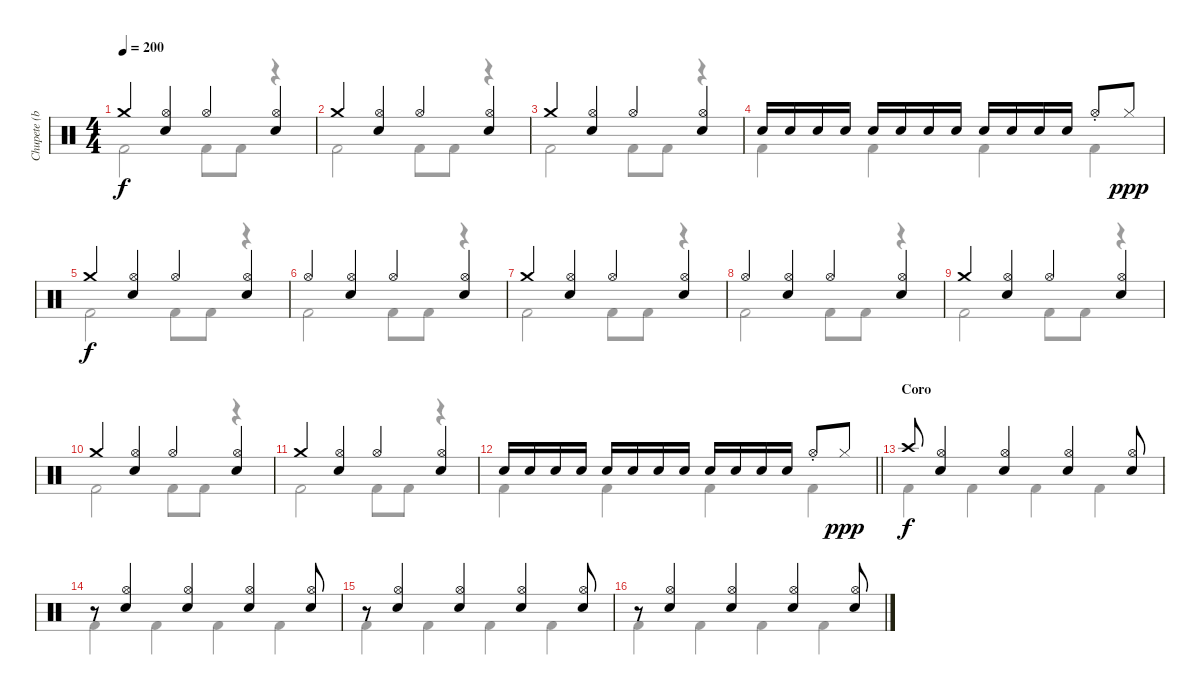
\track ("Chupete (batería)" "Chupete (b") {instrument percussion}
\staff {score}
\articulation defaults
\voice
\ts (4 4)
\tempo 200
\clef neutral
\ks c "Crash medium (hit)".4{dy f}
("Hi-Hat (open)" "Electric Snare (hit)").4 "Hi-Hat (open)".4 ("Hi-Hat (open)" "Electric Snare (hit)").4 |
"Crash medium (hit)".4 ("Hi-Hat (open)" "Electric Snare (hit)").4 "Hi-Hat (open)".4 ("Hi-Hat (open)" "Electric Snare (hit)").4 |
"Crash medium (hit)".4 ("Hi-Hat (open)" "Electric Snare (hit)").4 "Hi-Hat (open)".4 ("Hi-Hat (open)" "Electric Snare (hit)").4 |
"Electric Snare (hit)".16 "Electric Snare (hit)".16 "Electric Snare (hit)".16 "Electric Snare (hit)".16 "Electric Snare (hit)".16 "Electric Snare (hit)".16 "Electric Snare (hit)".16 "Electric Snare (hit)".16 "Electric Snare (hit)".16 "Electric Snare (hit)".16 "Electric Snare (hit)".16 "Electric Snare (hit)".16 "Hi-Hat (open)"{st}.8 "Hi-Hat (closed)".8{dy ppp} |
"Crash medium (hit)".4{dy f} ("Hi-Hat (open)" "Electric Snare (hit)").4 "Hi-Hat (open)".4 ("Hi-Hat (open)" "Electric Snare (hit)").4 |
"Hi-Hat (open)".4 ("Hi-Hat (open)" "Electric Snare (hit)").4 "Hi-Hat (open)".4 ("Hi-Hat (open)" "Electric Snare (hit)").4 |
"Crash medium (hit)".4 ("Hi-Hat (open)" "Electric Snare (hit)").4 "Hi-Hat (open)".4 ("Hi-Hat (open)" "Electric Snare (hit)").4 |
"Hi-Hat (open)".4 ("Hi-Hat (open)" "Electric Snare (hit)").4 "Hi-Hat (open)".4 ("Hi-Hat (open)" "Electric Snare (hit)").4 |
"Crash medium (hit)".4 ("Hi-Hat (open)" "Electric Snare (hit)").4 "Hi-Hat (open)".4 ("Hi-Hat (open)" "Electric Snare (hit)").4 |
"Crash medium (hit)".4 ("Hi-Hat (open)" "Electric Snare (hit)").4 "Hi-Hat (open)".4 ("Hi-Hat (open)" "Electric Snare (hit)").4 |
"Crash medium (hit)".4 ("Hi-Hat (open)" "Electric Snare (hit)").4 "Hi-Hat (open)".4 ("Hi-Hat (open)" "Electric Snare (hit)").4 |
\barLineRight lightlight "Electric Snare (hit)".16 "Electric Snare (hit)".16 "Electric Snare (hit)".16 "Electric Snare (hit)".16 "Electric Snare (hit)".16 "Electric Snare (hit)".16 "Electric Snare (hit)".16 "Electric Snare (hit)".16 "Electric Snare (hit)".16 "Electric Snare (hit)".16 "Electric Snare (hit)".16 "Electric Snare (hit)".16 "Hi-Hat (open)"{st}.8 "Hi-Hat (closed)".8{dy ppp}
|
\section ("" "Coro")
"Crash high (hit)".8{dy f} ("Hi-Hat (open)" "Electric Snare (hit)").4 ("Hi-Hat (open)" "Electric Snare (hit)").4 ("Hi-Hat (open)" "Electric Snare (hit)").4 ("Hi-Hat (open)" "Electric Snare (hit)").8 |
r.8 ("Hi-Hat (open)" "Electric Snare (hit)").4 ("Hi-Hat (open)" "Electric Snare (hit)").4 ("Hi-Hat (open)" "Electric Snare (hit)").4 ("Hi-Hat (open)" "Electric Snare (hit)").8 |
r.8 ("Hi-Hat (open)" "Electric Snare (hit)").4 ("Hi-Hat (open)" "Electric Snare (hit)").4 ("Hi-Hat (open)" "Electric Snare (hit)").4 ("Hi-Hat (open)" "Electric Snare (hit)").8 |
r.8 ("Hi-Hat (open)" "Electric Snare (hit)").4 ("Hi-Hat (open)" "Electric Snare (hit)").4 ("Hi-Hat (open)" "Electric Snare (hit)").4 ("Hi-Hat (open)" "Electric Snare (hit)").8
\voice
\clef neutral
\ottava regular
\simile none
\ks c "Kick (hit) 2".2{dy f} "Kick (hit) 2".8 "Kick (hit) 2".8
r.4 |
"Kick (hit) 2".2 "Kick (hit) 2".8 "Kick (hit) 2".8 r.4 |
"Kick (hit) 2".2 "Kick (hit) 2".8 "Kick (hit) 2".8 r.4 |
"Kick (hit) 2".4 "Kick (hit) 2".4 "Kick (hit) 2".4 "Kick (hit) 2".4 |
"Kick (hit) 2".2 "Kick (hit) 2".8 "Kick (hit) 2".8 r.4 |
"Kick (hit) 2".2 "Kick (hit) 2".8 "Kick (hit) 2".8 r.4 |
"Kick (hit) 2".2 "Kick (hit) 2".8 "Kick (hit) 2".8 r.4 |
"Kick (hit) 2".2 "Kick (hit) 2".8 "Kick (hit) 2".8 r.4 |
"Kick (hit) 2".2 "Kick (hit) 2".8 "Kick (hit) 2".8 r.4 |
"Kick (hit) 2".2 "Kick (hit) 2".8 "Kick (hit) 2".8 r.4 |
"Kick (hit) 2".2 "Kick (hit) 2".8 "Kick (hit) 2".8 r.4 |
\barLineRight lightlight "Kick (hit) 2".4 "Kick (hit) 2".4 "Kick (hit) 2".4 "Kick (hit) 2".4
|
"Kick (hit) 2".4 "Kick (hit) 2".4 "Kick (hit) 2".4 "Kick (hit) 2".4 |
"Kick (hit) 2".4 "Kick (hit) 2".4 "Kick (hit) 2".4 "Kick (hit) 2".4 |
"Kick (hit) 2".4 "Kick (hit) 2".4 "Kick (hit) 2".4 "Kick (hit) 2".4 |
"Kick (hit) 2".4 "Kick (hit) 2".4 "Kick (hit) 2".4 "Kick (hit) 2".4
